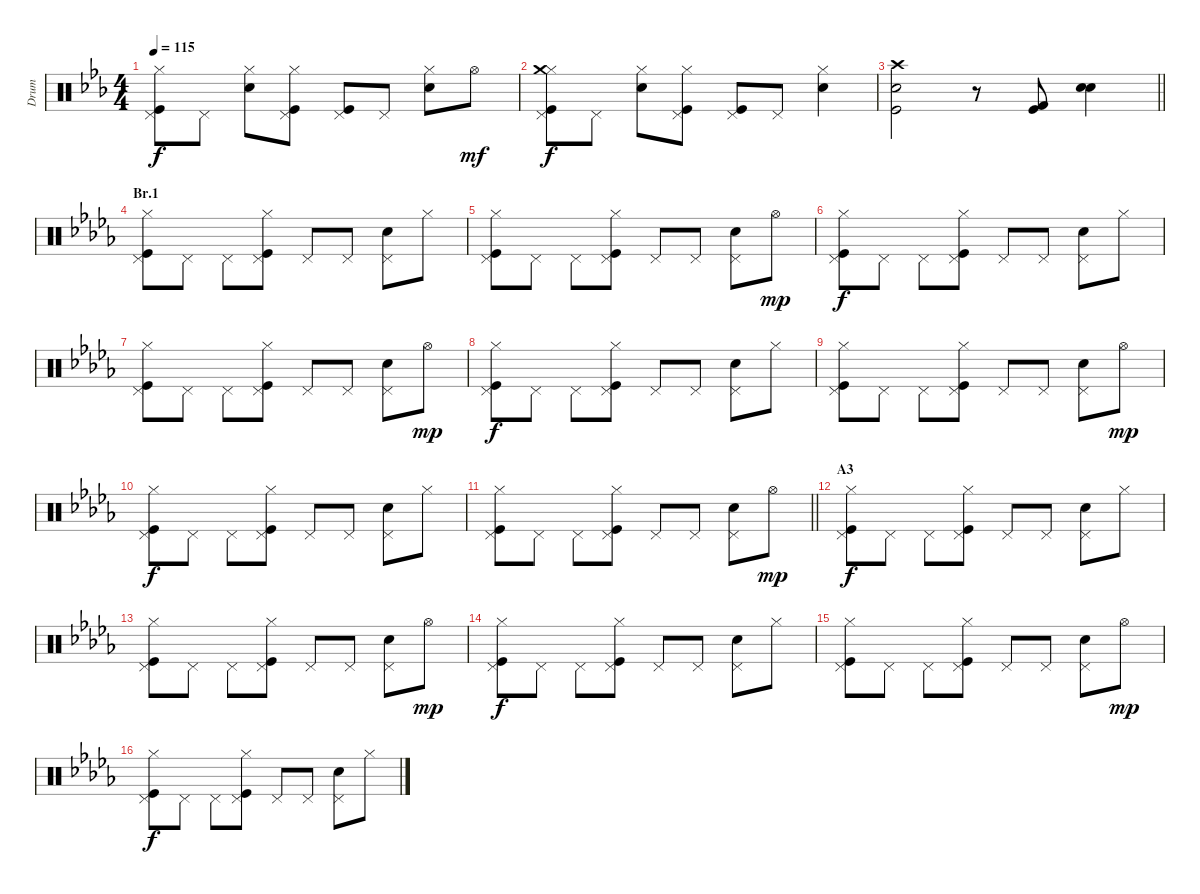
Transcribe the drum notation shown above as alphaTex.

\track ("Drum" "Drum") {instrument percussion}
\staff {score}
\articulation defaults
\ts (4 4)
\tempo 115
\clef neutral
\ks eb
("Hi-Hat (closed)" "Pedal Hi-Hat (hit)" "Kick (hit)").8{dy f} "Pedal Hi-Hat (hit)".8 ("Hi-Hat (closed)" "Snare (hit) 2").8 ("Hi-Hat (closed)" "Pedal Hi-Hat (hit)" "Kick (hit)").8 ("Kick (hit)" "Pedal Hi-Hat (hit)").8 "Pedal Hi-Hat (hit)".8 ("Hi-Hat (closed)" "Snare (hit) 2").8 "Hi-Hat (open)".8{dy mf} |
("Hi-Hat (closed)" "Pedal Hi-Hat (hit)" "Kick (hit)" "Crash medium (hit)").8{dy f} "Pedal Hi-Hat (hit)".8 ("Hi-Hat (closed)" "Snare (hit) 2").8 ("Hi-Hat (closed)" "Pedal Hi-Hat (hit)" "Kick (hit)").8 ("Kick (hit)" "Pedal Hi-Hat (hit)").8 "Pedal Hi-Hat (hit)".8 ("Hi-Hat (closed)" "Snare (hit) 2").4 |
\barLineRight lightlight
("Kick (hit)" "Snare (hit) 2" "Crash high (hit)").2 r.8 ("Kick (hit)" "Kick (hit) 2").8 ("Snare (hit) 2" "Electric Snare (hit)").4 |
\section ("" "Br.1")
\ks db
("Hi-Hat (closed)" "Pedal Hi-Hat (hit)" "Kick (hit)").8 "Pedal Hi-Hat (hit)".8 "Pedal Hi-Hat (hit)".8 ("Hi-Hat (closed)" "Pedal Hi-Hat (hit)" "Kick (hit)").8 "Pedal Hi-Hat (hit)".8 "Pedal Hi-Hat (hit)".8 ("Snare (hit) 2" "Pedal Hi-Hat (hit)").8 "Hi-Hat (closed)".8 |
("Hi-Hat (closed)" "Pedal Hi-Hat (hit)" "Kick (hit)").8 "Pedal Hi-Hat (hit)".8 "Pedal Hi-Hat (hit)".8 ("Hi-Hat (closed)" "Pedal Hi-Hat (hit)" "Kick (hit)").8 "Pedal Hi-Hat (hit)".8 "Pedal Hi-Hat (hit)".8 ("Snare (hit) 2" "Pedal Hi-Hat (hit)").8 "Hi-Hat (open)".8{dy mp} |
("Hi-Hat (closed)" "Pedal Hi-Hat (hit)" "Kick (hit)").8{dy f} "Pedal Hi-Hat (hit)".8 "Pedal Hi-Hat (hit)".8 ("Hi-Hat (closed)" "Pedal Hi-Hat (hit)" "Kick (hit)").8 "Pedal Hi-Hat (hit)".8 "Pedal Hi-Hat (hit)".8 ("Snare (hit) 2" "Pedal Hi-Hat (hit)").8 "Hi-Hat (closed)".8 |
("Hi-Hat (closed)" "Pedal Hi-Hat (hit)" "Kick (hit)").8 "Pedal Hi-Hat (hit)".8 "Pedal Hi-Hat (hit)".8 ("Hi-Hat (closed)" "Pedal Hi-Hat (hit)" "Kick (hit)").8 "Pedal Hi-Hat (hit)".8 "Pedal Hi-Hat (hit)".8 ("Snare (hit) 2" "Pedal Hi-Hat (hit)").8 "Hi-Hat (open)".8{dy mp} |
("Hi-Hat (closed)" "Pedal Hi-Hat (hit)" "Kick (hit)").8{dy f} "Pedal Hi-Hat (hit)".8 "Pedal Hi-Hat (hit)".8 ("Hi-Hat (closed)" "Pedal Hi-Hat (hit)" "Kick (hit)").8 "Pedal Hi-Hat (hit)".8 "Pedal Hi-Hat (hit)".8 ("Snare (hit) 2" "Pedal Hi-Hat (hit)").8 "Hi-Hat (closed)".8 |
("Hi-Hat (closed)" "Pedal Hi-Hat (hit)" "Kick (hit)").8 "Pedal Hi-Hat (hit)".8 "Pedal Hi-Hat (hit)".8 ("Hi-Hat (closed)" "Pedal Hi-Hat (hit)" "Kick (hit)").8 "Pedal Hi-Hat (hit)".8 "Pedal Hi-Hat (hit)".8 ("Snare (hit) 2" "Pedal Hi-Hat (hit)").8 "Hi-Hat (open)".8{dy mp} |
("Hi-Hat (closed)" "Pedal Hi-Hat (hit)" "Kick (hit)").8{dy f} "Pedal Hi-Hat (hit)".8 "Pedal Hi-Hat (hit)".8 ("Hi-Hat (closed)" "Pedal Hi-Hat (hit)" "Kick (hit)").8 "Pedal Hi-Hat (hit)".8 "Pedal Hi-Hat (hit)".8 ("Snare (hit) 2" "Pedal Hi-Hat (hit)").8 "Hi-Hat (closed)".8 |
\barLineRight lightlight
("Hi-Hat (closed)" "Pedal Hi-Hat (hit)" "Kick (hit)").8 "Pedal Hi-Hat (hit)".8 "Pedal Hi-Hat (hit)".8 ("Hi-Hat (closed)" "Pedal Hi-Hat (hit)" "Kick (hit)").8 "Pedal Hi-Hat (hit)".8 "Pedal Hi-Hat (hit)".8 ("Snare (hit) 2" "Pedal Hi-Hat (hit)").8 "Hi-Hat (open)".8{dy mp} |
\section ("" "A3")
("Hi-Hat (closed)" "Pedal Hi-Hat (hit)" "Kick (hit)").8{dy f} "Pedal Hi-Hat (hit)".8 "Pedal Hi-Hat (hit)".8 ("Hi-Hat (closed)" "Pedal Hi-Hat (hit)" "Kick (hit)").8 "Pedal Hi-Hat (hit)".8 "Pedal Hi-Hat (hit)".8 ("Snare (hit) 2" "Pedal Hi-Hat (hit)").8 "Hi-Hat (closed)".8 |
("Hi-Hat (closed)" "Pedal Hi-Hat (hit)" "Kick (hit)").8 "Pedal Hi-Hat (hit)".8 "Pedal Hi-Hat (hit)".8 ("Hi-Hat (closed)" "Pedal Hi-Hat (hit)" "Kick (hit)").8 "Pedal Hi-Hat (hit)".8 "Pedal Hi-Hat (hit)".8 ("Snare (hit) 2" "Pedal Hi-Hat (hit)").8 "Hi-Hat (open)".8{dy mp} |
("Hi-Hat (closed)" "Pedal Hi-Hat (hit)" "Kick (hit)").8{dy f} "Pedal Hi-Hat (hit)".8 "Pedal Hi-Hat (hit)".8 ("Hi-Hat (closed)" "Pedal Hi-Hat (hit)" "Kick (hit)").8 "Pedal Hi-Hat (hit)".8 "Pedal Hi-Hat (hit)".8 ("Snare (hit) 2" "Pedal Hi-Hat (hit)").8 "Hi-Hat (closed)".8 |
("Hi-Hat (closed)" "Pedal Hi-Hat (hit)" "Kick (hit)").8 "Pedal Hi-Hat (hit)".8 "Pedal Hi-Hat (hit)".8 ("Hi-Hat (closed)" "Pedal Hi-Hat (hit)" "Kick (hit)").8 "Pedal Hi-Hat (hit)".8 "Pedal Hi-Hat (hit)".8 ("Snare (hit) 2" "Pedal Hi-Hat (hit)").8 "Hi-Hat (open)".8{dy mp} |
("Hi-Hat (closed)" "Pedal Hi-Hat (hit)" "Kick (hit)").8{dy f} "Pedal Hi-Hat (hit)".8 "Pedal Hi-Hat (hit)".8 ("Hi-Hat (closed)" "Pedal Hi-Hat (hit)" "Kick (hit)").8 "Pedal Hi-Hat (hit)".8 "Pedal Hi-Hat (hit)".8 ("Snare (hit) 2" "Pedal Hi-Hat (hit)").8 "Hi-Hat (closed)".8
